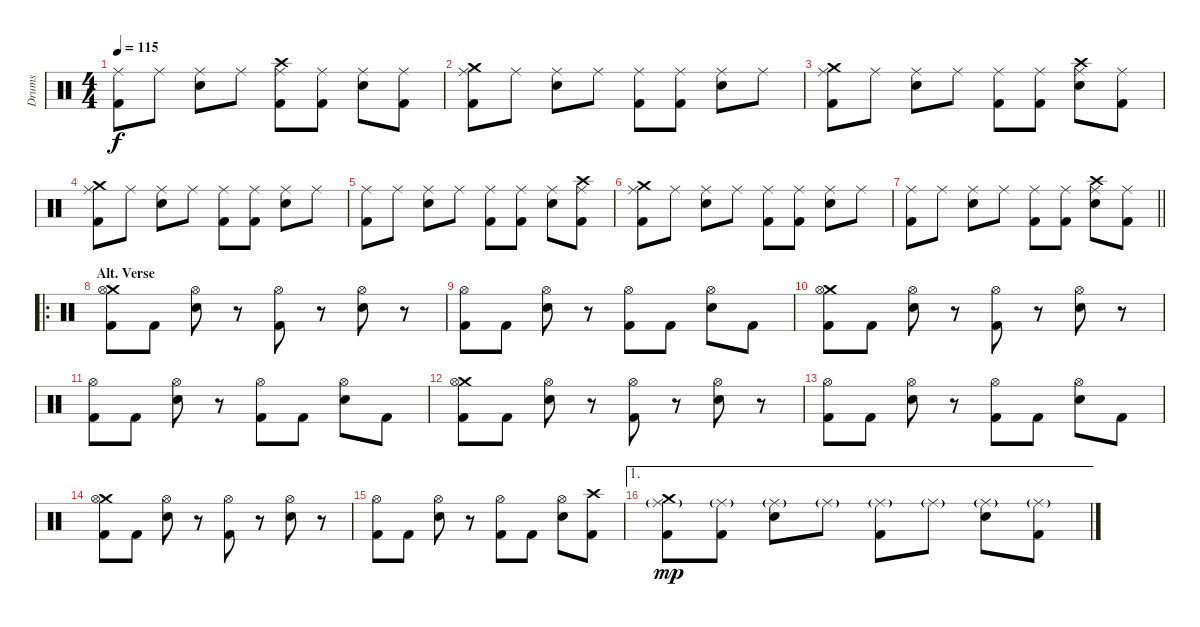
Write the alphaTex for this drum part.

\track ("Drums" "Drums") {instrument percussion}
\staff {score}
\articulation defaults
\ts (4 4)
\tempo 115
\clef neutral
\ks c
("Ride (middle)" "Kick (hit) 2").8{dy f} "Ride (middle)".8 ("Ride (middle)" "Snare (hit) 2").8 "Ride (middle)".8 ("Crash high (hit)" "Ride (middle)" "Kick (hit) 2").8 ("Ride (middle)" "Kick (hit) 2").8 ("Ride (middle)" "Snare (hit) 2").8 ("Ride (middle)" "Kick (hit) 2").8 |
("Crash medium (hit)" "Ride (middle)" "Kick (hit) 2").8 "Ride (middle)".8 ("Ride (middle)" "Snare (hit) 2").8 "Ride (middle)".8 ("Ride (middle)" "Kick (hit) 2").8 ("Ride (middle)" "Kick (hit) 2").8 ("Ride (middle)" "Snare (hit) 2").8 "Ride (middle)".8 |
("Crash medium (hit)" "Ride (middle)" "Kick (hit) 2").8 "Ride (middle)".8 ("Ride (middle)" "Snare (hit) 2").8 "Ride (middle)".8 ("Ride (middle)" "Kick (hit) 2").8 ("Ride (middle)" "Kick (hit) 2").8 ("Crash high (hit)" "Ride (middle)" "Snare (hit) 2").8 ("Ride (middle)" "Kick (hit) 2").8 |
("Crash medium (hit)" "Ride (middle)" "Kick (hit) 2").8 "Ride (middle)".8 ("Ride (middle)" "Snare (hit) 2").8 "Ride (middle)".8 ("Ride (middle)" "Kick (hit) 2").8 ("Ride (middle)" "Kick (hit) 2").8 ("Ride (middle)" "Snare (hit) 2").8 "Ride (middle)".8 |
("Ride (middle)" "Kick (hit) 2").8 "Ride (middle)".8 ("Ride (middle)" "Snare (hit) 2").8 "Ride (middle)".8 ("Ride (middle)" "Kick (hit) 2").8 ("Ride (middle)" "Kick (hit) 2").8 ("Ride (middle)" "Snare (hit) 2").8 ("Crash high (hit)" "Ride (middle)" "Kick (hit) 2").8 |
("Crash medium (hit)" "Ride (middle)" "Kick (hit) 2").8 "Ride (middle)".8 ("Ride (middle)" "Snare (hit) 2").8 "Ride (middle)".8 ("Ride (middle)" "Kick (hit) 2").8 ("Ride (middle)" "Kick (hit) 2").8 ("Ride (middle)" "Snare (hit) 2").8 "Ride (middle)".8 |
\barLineRight lightlight
("Ride (middle)" "Kick (hit) 2").8 "Ride (middle)".8 ("Ride (middle)" "Snare (hit) 2").8 "Ride (middle)".8 ("Ride (middle)" "Kick (hit) 2").8 ("Ride (middle)" "Kick (hit) 2").8 ("Crash high (hit)" "Ride (middle)" "Snare (hit) 2").8 ("Ride (middle)" "Kick (hit) 2").8 |
\ro
\section ("" "Alt. Verse")
("Crash medium (hit)" "Hi-Hat (open)" "Kick (hit) 2").8 "Kick (hit) 2".8 ("Hi-Hat (open)" "Snare (hit) 2").8 r.8 ("Hi-Hat (open)" "Kick (hit) 2").8 r.8 ("Hi-Hat (open)" "Snare (hit) 2").8 r.8 |
("Hi-Hat (open)" "Kick (hit) 2").8 "Kick (hit) 2".8 ("Hi-Hat (open)" "Snare (hit) 2").8 r.8 ("Hi-Hat (open)" "Kick (hit) 2").8 "Kick (hit) 2".8 ("Hi-Hat (open)" "Snare (hit) 2").8 "Kick (hit) 2".8 |
("Crash medium (hit)" "Hi-Hat (open)" "Kick (hit) 2").8 "Kick (hit) 2".8 ("Hi-Hat (open)" "Snare (hit) 2").8 r.8 ("Hi-Hat (open)" "Kick (hit) 2").8 r.8 ("Hi-Hat (open)" "Snare (hit) 2").8 r.8 |
("Hi-Hat (open)" "Kick (hit) 2").8 "Kick (hit) 2".8 ("Hi-Hat (open)" "Snare (hit) 2").8 r.8 ("Hi-Hat (open)" "Kick (hit) 2").8 "Kick (hit) 2".8 ("Hi-Hat (open)" "Snare (hit) 2").8 "Kick (hit) 2".8 |
("Crash medium (hit)" "Hi-Hat (open)" "Kick (hit) 2").8 "Kick (hit) 2".8 ("Hi-Hat (open)" "Snare (hit) 2").8 r.8 ("Hi-Hat (open)" "Kick (hit) 2").8 r.8 ("Hi-Hat (open)" "Snare (hit) 2").8 r.8 |
("Hi-Hat (open)" "Kick (hit) 2").8 "Kick (hit) 2".8 ("Hi-Hat (open)" "Snare (hit) 2").8 r.8 ("Hi-Hat (open)" "Kick (hit) 2").8 "Kick (hit) 2".8 ("Hi-Hat (open)" "Snare (hit) 2").8 "Kick (hit) 2".8 |
("Crash medium (hit)" "Hi-Hat (open)" "Kick (hit) 2").8 "Kick (hit) 2".8 ("Hi-Hat (open)" "Snare (hit) 2").8 r.8 ("Hi-Hat (open)" "Kick (hit) 2").8 r.8 ("Hi-Hat (open)" "Snare (hit) 2").8 r.8 |
("Hi-Hat (open)" "Kick (hit) 2").8 "Kick (hit) 2".8 ("Hi-Hat (open)" "Snare (hit) 2").8 r.8 ("Hi-Hat (open)" "Kick (hit) 2").8 "Kick (hit) 2".8 ("Hi-Hat (open)" "Snare (hit) 2").8 ("Crash high (hit)" "Kick (hit) 2").8 |
\ae 1
("Crash medium (hit)" "Ride (middle)"{g} "Kick (hit) 2").8{dy mp} ("Ride (middle)"{g} "Kick (hit) 2").8 ("Ride (middle)"{g} "Snare (hit) 2").8 "Ride (middle)"{g}.8 ("Ride (middle)"{g} "Kick (hit) 2").8 "Ride (middle)"{g}.8 ("Ride (middle)"{g} "Snare (hit) 2").8 ("Ride (middle)"{g} "Kick (hit) 2").8
